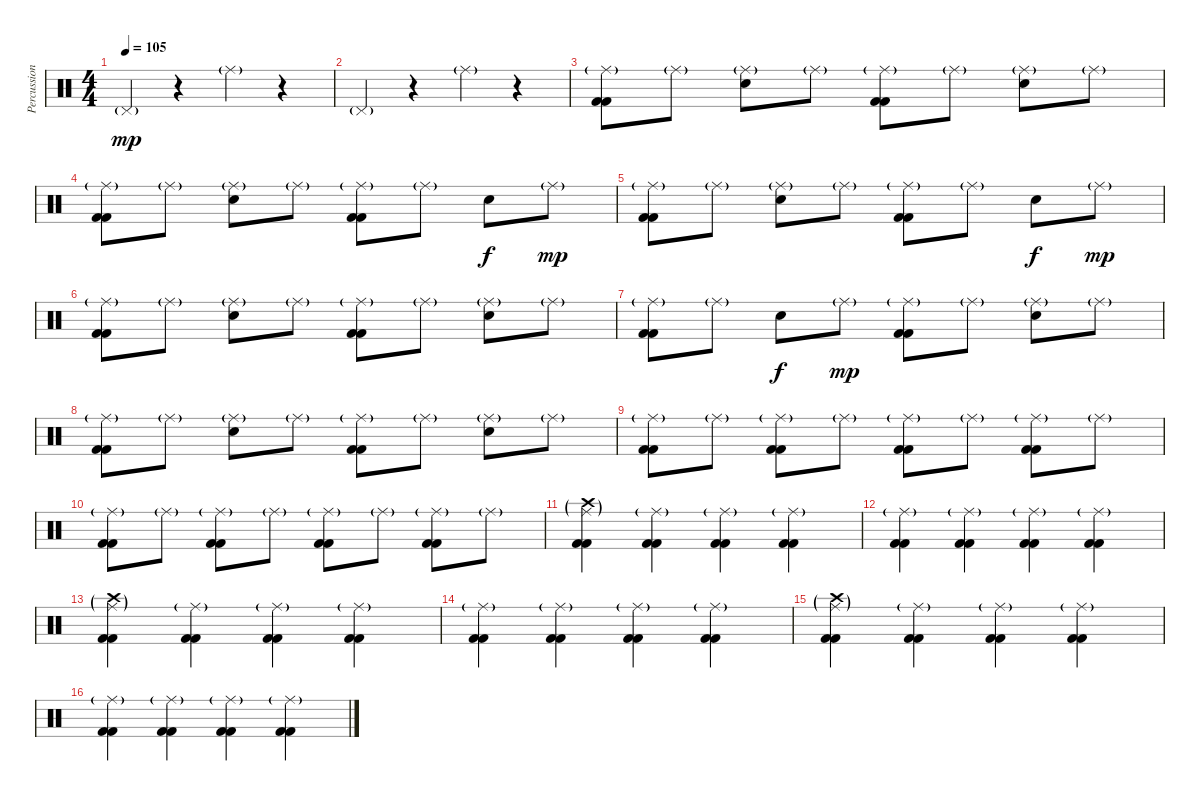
\track ("Percussion" "Percussion") {instrument percussion}
\staff {score}
\articulation defaults
\ts (4 4)
\tempo 105
\clef neutral
\ks c "Pedal Hi-Hat (hit)"{g}.4{dy mp}
r.4 "Ride (middle)"{g}.4 r.4 |
"Pedal Hi-Hat (hit)"{g}.4 r.4 "Ride (middle)"{g}.4 r.4 |
("Ride (middle)"{g} "Kick (hit) 2" "Kick (hit) 2").8 "Ride (middle)"{g}.8 ("Ride (middle)"{g} "Snare (hit) 2").8 "Ride (middle)"{g}.8 ("Ride (middle)"{g} "Kick (hit) 2" "Kick (hit) 2").8 "Ride (middle)"{g}.8 ("Ride (middle)"{g} "Snare (hit) 2").8 "Ride (middle)"{g}.8 |
("Ride (middle)"{g} "Kick (hit) 2" "Kick (hit) 2").8 "Ride (middle)"{g}.8 ("Ride (middle)"{g} "Snare (hit) 2").8 "Ride (middle)"{g}.8 ("Ride (middle)"{g} "Kick (hit) 2" "Kick (hit) 2").8 "Ride (middle)"{g}.8 "Snare (hit) 2".8{dy f} "Ride (middle)"{g}.8{dy mp} |
("Ride (middle)"{g} "Kick (hit) 2" "Kick (hit) 2").8 "Ride (middle)"{g}.8 ("Ride (middle)"{g} "Snare (hit) 2").8 "Ride (middle)"{g}.8 ("Ride (middle)"{g} "Kick (hit) 2" "Kick (hit) 2").8 "Ride (middle)"{g}.8 "Snare (hit) 2".8{dy f} "Ride (middle)"{g}.8{dy mp} |
("Ride (middle)"{g} "Kick (hit) 2" "Kick (hit) 2").8 "Ride (middle)"{g}.8 ("Ride (middle)"{g} "Snare (hit) 2").8 "Ride (middle)"{g}.8 ("Ride (middle)"{g} "Kick (hit) 2" "Kick (hit) 2").8 "Ride (middle)"{g}.8 ("Ride (middle)"{g} "Snare (hit) 2").8 "Ride (middle)"{g}.8 |
("Ride (middle)"{g} "Kick (hit) 2" "Kick (hit) 2").8 "Ride (middle)"{g}.8 "Snare (hit) 2".8{dy f} "Ride (middle)"{g}.8{dy mp} ("Ride (middle)"{g} "Kick (hit) 2" "Kick (hit) 2").8 "Ride (middle)"{g}.8 ("Ride (middle)"{g} "Snare (hit) 2").8 "Ride (middle)"{g}.8 |
("Ride (middle)"{g} "Kick (hit) 2" "Kick (hit) 2").8 "Ride (middle)"{g}.8 ("Ride (middle)"{g} "Snare (hit) 2").8 "Ride (middle)"{g}.8 ("Ride (middle)"{g} "Kick (hit) 2" "Kick (hit) 2").8 "Ride (middle)"{g}.8 ("Ride (middle)"{g} "Snare (hit) 2").8 "Ride (middle)"{g}.8 |
("Ride (middle)"{g} "Kick (hit) 2" "Kick (hit) 2").8 "Ride (middle)"{g}.8 ("Ride (middle)"{g} "Kick (hit) 2" "Kick (hit) 2").8 "Ride (middle)"{g}.8 ("Ride (middle)"{g} "Kick (hit) 2" "Kick (hit) 2").8 "Ride (middle)"{g}.8 ("Ride (middle)"{g} "Kick (hit) 2" "Kick (hit) 2").8 "Ride (middle)"{g}.8 |
("Ride (middle)"{g} "Kick (hit) 2" "Kick (hit) 2").8 "Ride (middle)"{g}.8 ("Ride (middle)"{g} "Kick (hit) 2" "Kick (hit) 2").8 "Ride (middle)"{g}.8 ("Ride (middle)"{g} "Kick (hit) 2" "Kick (hit) 2").8 "Ride (middle)"{g}.8 ("Ride (middle)"{g} "Kick (hit) 2" "Kick (hit) 2").8 "Ride (middle)"{g}.8 |
("Ride (middle)"{g} "Crash high (hit)"{g} "Kick (hit) 2" "Kick (hit) 2").4 ("Ride (middle)"{g} "Kick (hit) 2" "Kick (hit) 2").4 ("Ride (middle)"{g} "Kick (hit) 2" "Kick (hit) 2").4 ("Ride (middle)"{g} "Kick (hit) 2" "Kick (hit) 2").4 |
("Ride (middle)"{g} "Kick (hit) 2" "Kick (hit) 2").4 ("Ride (middle)"{g} "Kick (hit) 2" "Kick (hit) 2").4 ("Ride (middle)"{g} "Kick (hit) 2" "Kick (hit) 2").4 ("Ride (middle)"{g} "Kick (hit) 2" "Kick (hit) 2").4 |
("Ride (middle)"{g} "Crash high (hit)"{g} "Kick (hit) 2" "Kick (hit) 2").4 ("Ride (middle)"{g} "Kick (hit) 2" "Kick (hit) 2").4 ("Ride (middle)"{g} "Kick (hit) 2" "Kick (hit) 2").4 ("Ride (middle)"{g} "Kick (hit) 2" "Kick (hit) 2").4 |
("Ride (middle)"{g} "Kick (hit) 2" "Kick (hit) 2").4 ("Ride (middle)"{g} "Kick (hit) 2" "Kick (hit) 2").4 ("Ride (middle)"{g} "Kick (hit) 2" "Kick (hit) 2").4 ("Ride (middle)"{g} "Kick (hit) 2" "Kick (hit) 2").4 |
("Ride (middle)"{g} "Crash high (hit)"{g} "Kick (hit) 2" "Kick (hit) 2").4 ("Ride (middle)"{g} "Kick (hit) 2" "Kick (hit) 2").4 ("Ride (middle)"{g} "Kick (hit) 2" "Kick (hit) 2").4 ("Ride (middle)"{g} "Kick (hit) 2" "Kick (hit) 2").4 |
("Ride (middle)"{g} "Kick (hit) 2" "Kick (hit) 2").4 ("Ride (middle)"{g} "Kick (hit) 2" "Kick (hit) 2").4 ("Ride (middle)"{g} "Kick (hit) 2" "Kick (hit) 2").4 ("Ride (middle)"{g} "Kick (hit) 2" "Kick (hit) 2").4
